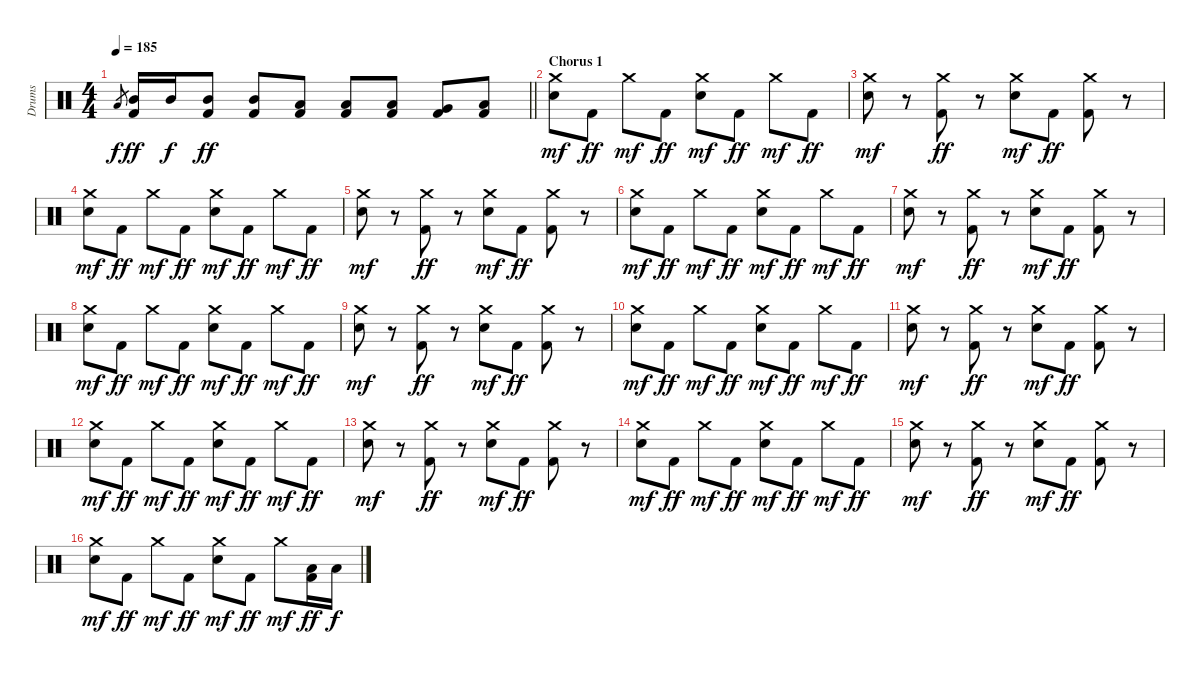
\track ("Drums" "Drums") {instrument percussion}
\staff {score}
\articulation defaults
\ts (4 4)
\tempo 185
\clef neutral
\barLineRight lightlight
\ks c "Low Tom (hit)".8{gr dy f}
("Mid Tom (hit)" "Kick (hit) 2").16{dy ff} "Mid Tom (hit)".16{dy f} ("Mid Tom (hit)" "Kick (hit) 2").8{dy ff} ("Mid Tom (hit)" "Kick (hit) 2").8 ("Low Tom (hit)" "Kick (hit) 2").8 ("Low Tom (hit)" "Kick (hit) 2").8 ("Low Tom (hit)" "Kick (hit) 2").8 ("Very Low Tom (hit)" "Kick (hit) 2").8 ("Low Floor Tom (hit)" "Kick (hit) 2").8 |
\section ("" "Chorus 1")
("Crash medium (hit)" "Electric Snare (hit)").8{dy mf} "Kick (hit) 2".8{dy ff} "Crash medium (hit)".8{dy mf} "Kick (hit) 2".8{dy ff} ("Crash medium (hit)" "Electric Snare (hit)").8{dy mf} "Kick (hit) 2".8{dy ff} "Crash medium (hit)".8{dy mf} "Kick (hit) 2".8{dy ff} |
("Crash medium (hit)" "Electric Snare (hit)").8{dy mf} r.8 ("Crash medium (hit)" "Kick (hit) 2").8{dy ff} r.8 ("Crash medium (hit)" "Electric Snare (hit)").8{dy mf} "Kick (hit) 2".8{dy ff} ("Crash medium (hit)" "Kick (hit) 2").8 r.8 |
("Crash medium (hit)" "Electric Snare (hit)").8{dy mf} "Kick (hit) 2".8{dy ff} "Crash medium (hit)".8{dy mf} "Kick (hit) 2".8{dy ff} ("Crash medium (hit)" "Electric Snare (hit)").8{dy mf} "Kick (hit) 2".8{dy ff} "Crash medium (hit)".8{dy mf} "Kick (hit) 2".8{dy ff} |
("Crash medium (hit)" "Electric Snare (hit)").8{dy mf} r.8 ("Crash medium (hit)" "Kick (hit) 2").8{dy ff} r.8 ("Crash medium (hit)" "Electric Snare (hit)").8{dy mf} "Kick (hit) 2".8{dy ff} ("Crash medium (hit)" "Kick (hit) 2").8 r.8 |
("Crash medium (hit)" "Electric Snare (hit)").8{dy mf} "Kick (hit) 2".8{dy ff} "Crash medium (hit)".8{dy mf} "Kick (hit) 2".8{dy ff} ("Crash medium (hit)" "Electric Snare (hit)").8{dy mf} "Kick (hit) 2".8{dy ff} "Crash medium (hit)".8{dy mf} "Kick (hit) 2".8{dy ff} |
("Crash medium (hit)" "Electric Snare (hit)").8{dy mf} r.8 ("Crash medium (hit)" "Kick (hit) 2").8{dy ff} r.8 ("Crash medium (hit)" "Electric Snare (hit)").8{dy mf} "Kick (hit) 2".8{dy ff} ("Crash medium (hit)" "Kick (hit) 2").8 r.8 |
("Crash medium (hit)" "Electric Snare (hit)").8{dy mf} "Kick (hit) 2".8{dy ff} "Crash medium (hit)".8{dy mf} "Kick (hit) 2".8{dy ff} ("Crash medium (hit)" "Electric Snare (hit)").8{dy mf} "Kick (hit) 2".8{dy ff} "Crash medium (hit)".8{dy mf} "Kick (hit) 2".8{dy ff} |
("Crash medium (hit)" "Electric Snare (hit)").8{dy mf} r.8 ("Crash medium (hit)" "Kick (hit) 2").8{dy ff} r.8 ("Crash medium (hit)" "Electric Snare (hit)").8{dy mf} "Kick (hit) 2".8{dy ff} ("Crash medium (hit)" "Kick (hit) 2").8 r.8 |
("Crash medium (hit)" "Electric Snare (hit)").8{dy mf} "Kick (hit) 2".8{dy ff} "Crash medium (hit)".8{dy mf} "Kick (hit) 2".8{dy ff} ("Crash medium (hit)" "Electric Snare (hit)").8{dy mf} "Kick (hit) 2".8{dy ff} "Crash medium (hit)".8{dy mf} "Kick (hit) 2".8{dy ff} |
("Crash medium (hit)" "Electric Snare (hit)").8{dy mf} r.8 ("Crash medium (hit)" "Kick (hit) 2").8{dy ff} r.8 ("Crash medium (hit)" "Electric Snare (hit)").8{dy mf} "Kick (hit) 2".8{dy ff} ("Crash medium (hit)" "Kick (hit) 2").8 r.8 |
("Crash medium (hit)" "Electric Snare (hit)").8{dy mf} "Kick (hit) 2".8{dy ff} "Crash medium (hit)".8{dy mf} "Kick (hit) 2".8{dy ff} ("Crash medium (hit)" "Electric Snare (hit)").8{dy mf} "Kick (hit) 2".8{dy ff} "Crash medium (hit)".8{dy mf} "Kick (hit) 2".8{dy ff} |
("Crash medium (hit)" "Electric Snare (hit)").8{dy mf} r.8 ("Crash medium (hit)" "Kick (hit) 2").8{dy ff} r.8 ("Crash medium (hit)" "Electric Snare (hit)").8{dy mf} "Kick (hit) 2".8{dy ff} ("Crash medium (hit)" "Kick (hit) 2").8 r.8 |
("Crash medium (hit)" "Electric Snare (hit)").8{dy mf} "Kick (hit) 2".8{dy ff} "Crash medium (hit)".8{dy mf} "Kick (hit) 2".8{dy ff} ("Crash medium (hit)" "Electric Snare (hit)").8{dy mf} "Kick (hit) 2".8{dy ff} "Crash medium (hit)".8{dy mf} "Kick (hit) 2".8{dy ff} |
("Crash medium (hit)" "Electric Snare (hit)").8{dy mf} r.8 ("Crash medium (hit)" "Kick (hit) 2").8{dy ff} r.8 ("Crash medium (hit)" "Electric Snare (hit)").8{dy mf} "Kick (hit) 2".8{dy ff} ("Crash medium (hit)" "Kick (hit) 2").8 r.8 |
("Crash medium (hit)" "Electric Snare (hit)").8{dy mf} "Kick (hit) 2".8{dy ff} "Crash medium (hit)".8{dy mf} "Kick (hit) 2".8{dy ff} ("Crash medium (hit)" "Electric Snare (hit)").8{dy mf} "Kick (hit) 2".8{dy ff} "Crash medium (hit)".8{dy mf} ("Low Tom (hit)" "Kick (hit) 2").16{dy ff} "Low Tom (hit)".16{dy f}
